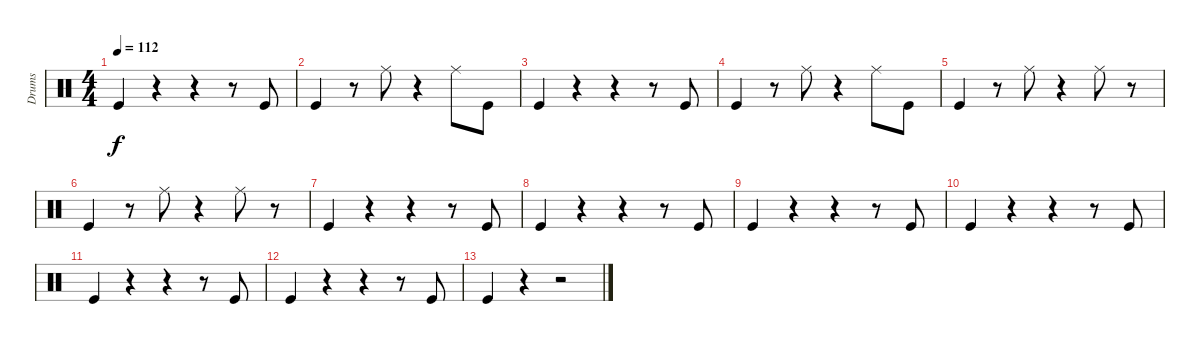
\track ("Drums" "Drums") {instrument percussion}
\staff {score}
\articulation defaults
\ts (4 4)
\tempo 112
\clef neutral
\ks c "Kick (hit)".4{dy f}
r.4 r.4 r.8 "Kick (hit)".8 |
"Kick (hit)".4 r.8 "Ride (middle)".8 r.4 "Ride (middle)".8 "Kick (hit)".8 |
"Kick (hit)".4 r.4 r.4 r.8 "Kick (hit)".8 |
"Kick (hit)".4 r.8 "Ride (middle)".8 r.4 "Ride (middle)".8 "Kick (hit)".8 |
"Kick (hit)".4 r.8 "Ride (middle)".8 r.4 "Ride (middle)".8 r.8 |
"Kick (hit)".4 r.8 "Ride (middle)".8 r.4 "Ride (middle)".8 r.8 |
"Kick (hit)".4 r.4 r.4 r.8 "Kick (hit)".8 |
"Kick (hit)".4 r.4 r.4 r.8 "Kick (hit)".8 |
"Kick (hit)".4 r.4 r.4 r.8 "Kick (hit)".8 |
"Kick (hit)".4 r.4 r.4 r.8 "Kick (hit)".8 |
"Kick (hit)".4 r.4 r.4 r.8 "Kick (hit)".8 |
"Kick (hit)".4 r.4 r.4 r.8 "Kick (hit)".8 |
"Kick (hit)".4 r.4 r.2
